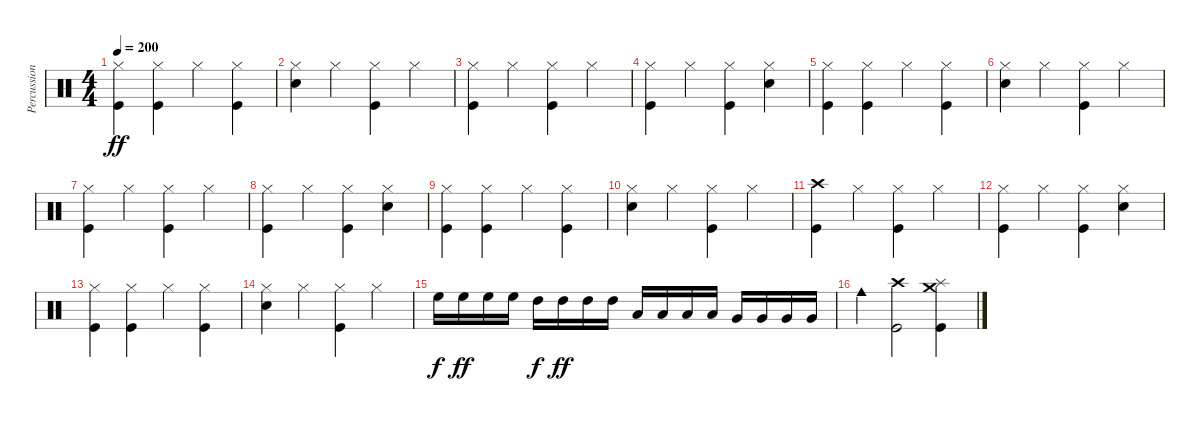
\track ("Percussion" "Percussion") {instrument percussion}
\staff {score}
\articulation defaults
\ts (4 4)
\tempo 200
\clef neutral
\ks c
("Hi-Hat (closed)" "Kick (hit)").4{dy ff} ("Hi-Hat (closed)" "Kick (hit)").4 "Hi-Hat (closed)".4 ("Hi-Hat (closed)" "Kick (hit)").4 |
("Hi-Hat (closed)" "Hand Clap (hit)").4 "Hi-Hat (closed)".4 ("Hi-Hat (closed)" "Kick (hit)").4 "Hi-Hat (closed)".4 |
("Hi-Hat (closed)" "Kick (hit)").4 "Hi-Hat (closed)".4 ("Hi-Hat (closed)" "Kick (hit)").4 "Hi-Hat (closed)".4 |
("Hi-Hat (closed)" "Kick (hit)").4 "Hi-Hat (closed)".4 ("Hi-Hat (closed)" "Kick (hit)").4 ("Hi-Hat (closed)" "Hand Clap (hit)").4 |
("Hi-Hat (closed)" "Kick (hit)").4 ("Hi-Hat (closed)" "Kick (hit)").4 "Hi-Hat (closed)".4 ("Hi-Hat (closed)" "Kick (hit)").4 |
("Hi-Hat (closed)" "Hand Clap (hit)").4 "Hi-Hat (closed)".4 ("Hi-Hat (closed)" "Kick (hit)").4 "Hi-Hat (closed)".4 |
("Hi-Hat (closed)" "Kick (hit)").4 "Hi-Hat (closed)".4 ("Hi-Hat (closed)" "Kick (hit)").4 "Hi-Hat (closed)".4 |
("Hi-Hat (closed)" "Kick (hit)").4 "Hi-Hat (closed)".4 ("Hi-Hat (closed)" "Kick (hit)").4 ("Hi-Hat (closed)" "Hand Clap (hit)").4 |
("Hi-Hat (closed)" "Kick (hit)").4 ("Hi-Hat (closed)" "Kick (hit)").4 "Hi-Hat (closed)".4 ("Hi-Hat (closed)" "Kick (hit)").4 |
("Hi-Hat (closed)" "Hand Clap (hit)").4 "Hi-Hat (closed)".4 ("Hi-Hat (closed)" "Kick (hit)").4 "Hi-Hat (closed)".4 |
("Crash high (hit)" "Kick (hit)").4 "Hi-Hat (closed)".4 ("Hi-Hat (closed)" "Kick (hit)").4 "Hi-Hat (closed)".4 |
("Hi-Hat (closed)" "Kick (hit)").4 "Hi-Hat (closed)".4 ("Hi-Hat (closed)" "Kick (hit)").4 ("Hi-Hat (closed)" "Hand Clap (hit)").4 |
("Hi-Hat (closed)" "Kick (hit)").4 ("Hi-Hat (closed)" "Kick (hit)").4 "Hi-Hat (closed)".4 ("Hi-Hat (closed)" "Kick (hit)").4 |
("Hi-Hat (closed)" "Hand Clap (hit)").4 "Hi-Hat (closed)".4 ("Hi-Hat (closed)" "Kick (hit)").4 "Hi-Hat (closed)".4 |
"High Floor Tom (hit)".16{dy f} "High Floor Tom (hit)".16{dy ff} "High Floor Tom (hit)".16 "High Floor Tom (hit)".16 "High Tom (hit)".16{dy f} "High Tom (hit)".16{dy ff} "High Tom (hit)".16 "High Tom (hit)".16 "Low Tom (hit)".16 "Low Tom (hit)".16 "Low Tom (hit)".16 "Low Tom (hit)".16 "Very Low Tom (hit)".16 "Very Low Tom (hit)".16 "Very Low Tom (hit)".16 "Very Low Tom (hit)".16 |
"Cowbell medium (hit)".4 ("Crash high (hit)" "Kick (hit)").2 ("Crash medium (hit)" "Splash (hit)" "Kick (hit)").4
